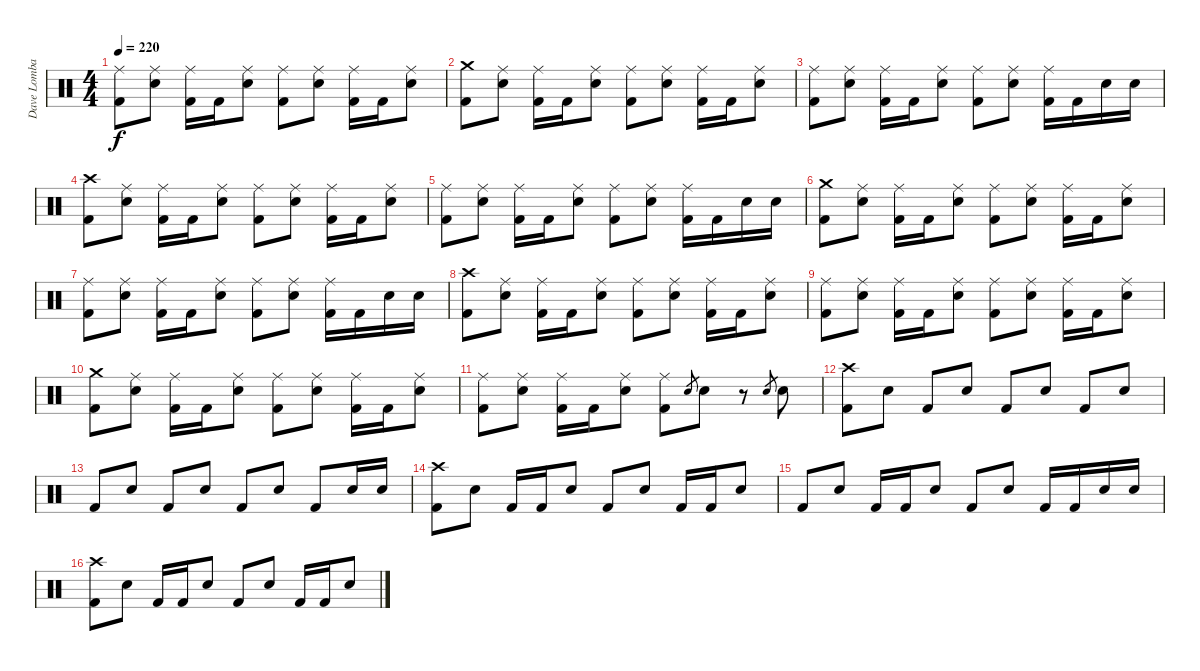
\track ("Dave Lombardo" "Dave Lomba") {instrument percussion}
\staff {score}
\articulation defaults
\ts (4 4)
\tempo 220
\clef neutral
\ks c
("Ride (middle)" "Kick (hit) 2").8{dy f} ("Ride (middle)" "Electric Snare (hit)").8 ("Ride (middle)" "Kick (hit) 2").16 "Kick (hit) 2".16 ("Ride (middle)" "Electric Snare (hit)").8 ("Ride (middle)" "Kick (hit) 2").8 ("Ride (middle)" "Electric Snare (hit)").8 ("Ride (middle)" "Kick (hit) 2").16 "Kick (hit) 2".16 ("Ride (middle)" "Electric Snare (hit)").8 |
("Crash medium (hit)" "Kick (hit) 2").8 ("Ride (middle)" "Electric Snare (hit)").8 ("Ride (middle)" "Kick (hit) 2").16 "Kick (hit) 2".16 ("Ride (middle)" "Electric Snare (hit)").8 ("Ride (middle)" "Kick (hit) 2").8 ("Ride (middle)" "Electric Snare (hit)").8 ("Ride (middle)" "Kick (hit) 2").16 "Kick (hit) 2".16 ("Ride (middle)" "Electric Snare (hit)").8 |
("Ride (middle)" "Kick (hit) 2").8 ("Ride (middle)" "Electric Snare (hit)").8 ("Ride (middle)" "Kick (hit) 2").16 "Kick (hit) 2".16 ("Ride (middle)" "Electric Snare (hit)").8 ("Ride (middle)" "Kick (hit) 2").8 ("Ride (middle)" "Electric Snare (hit)").8 ("Ride (middle)" "Kick (hit) 2").16 "Kick (hit) 2".16 "Electric Snare (hit)".16 "Electric Snare (hit)".16 |
("Crash high (hit)" "Kick (hit) 2").8 ("Ride (middle)" "Electric Snare (hit)").8 ("Ride (middle)" "Kick (hit) 2").16 "Kick (hit) 2".16 ("Ride (middle)" "Electric Snare (hit)").8 ("Ride (middle)" "Kick (hit) 2").8 ("Ride (middle)" "Electric Snare (hit)").8 ("Ride (middle)" "Kick (hit) 2").16 "Kick (hit) 2".16 ("Ride (middle)" "Electric Snare (hit)").8 |
("Ride (middle)" "Kick (hit) 2").8 ("Ride (middle)" "Electric Snare (hit)").8 ("Ride (middle)" "Kick (hit) 2").16 "Kick (hit) 2".16 ("Ride (middle)" "Electric Snare (hit)").8 ("Ride (middle)" "Kick (hit) 2").8 ("Ride (middle)" "Electric Snare (hit)").8 ("Ride (middle)" "Kick (hit) 2").16 "Kick (hit) 2".16 "Electric Snare (hit)".16 "Electric Snare (hit)".16 |
("Crash medium (hit)" "Kick (hit) 2").8 ("Ride (middle)" "Electric Snare (hit)").8 ("Ride (middle)" "Kick (hit) 2").16 "Kick (hit) 2".16 ("Ride (middle)" "Electric Snare (hit)").8 ("Ride (middle)" "Kick (hit) 2").8 ("Ride (middle)" "Electric Snare (hit)").8 ("Ride (middle)" "Kick (hit) 2").16 "Kick (hit) 2".16 ("Ride (middle)" "Electric Snare (hit)").8 |
("Ride (middle)" "Kick (hit) 2").8 ("Ride (middle)" "Electric Snare (hit)").8 ("Ride (middle)" "Kick (hit) 2").16 "Kick (hit) 2".16 ("Ride (middle)" "Electric Snare (hit)").8 ("Ride (middle)" "Kick (hit) 2").8 ("Ride (middle)" "Electric Snare (hit)").8 ("Ride (middle)" "Kick (hit) 2").16 "Kick (hit) 2".16 "Electric Snare (hit)".16 "Electric Snare (hit)".16 |
("Crash high (hit)" "Kick (hit) 2").8 ("Ride (middle)" "Electric Snare (hit)").8 ("Ride (middle)" "Kick (hit) 2").16 "Kick (hit) 2".16 ("Ride (middle)" "Electric Snare (hit)").8 ("Ride (middle)" "Kick (hit) 2").8 ("Ride (middle)" "Electric Snare (hit)").8 ("Ride (middle)" "Kick (hit) 2").16 "Kick (hit) 2".16 ("Ride (middle)" "Electric Snare (hit)").8 |
("Ride (middle)" "Kick (hit) 2").8 ("Ride (middle)" "Electric Snare (hit)").8 ("Ride (middle)" "Kick (hit) 2").16 "Kick (hit) 2".16 ("Ride (middle)" "Electric Snare (hit)").8 ("Ride (middle)" "Kick (hit) 2").8 ("Ride (middle)" "Electric Snare (hit)").8 ("Ride (middle)" "Kick (hit) 2").16 "Kick (hit) 2".16 ("Ride (middle)" "Electric Snare (hit)").8 |
("Crash medium (hit)" "Kick (hit) 2").8 ("Ride (middle)" "Electric Snare (hit)").8 ("Ride (middle)" "Kick (hit) 2").16 "Kick (hit) 2".16 ("Ride (middle)" "Electric Snare (hit)").8 ("Ride (middle)" "Kick (hit) 2").8 ("Ride (middle)" "Electric Snare (hit)").8 ("Ride (middle)" "Kick (hit) 2").16 "Kick (hit) 2".16 ("Ride (middle)" "Electric Snare (hit)").8 |
("Ride (middle)" "Kick (hit) 2").8 ("Ride (middle)" "Electric Snare (hit)").8 ("Ride (middle)" "Kick (hit) 2").16 "Kick (hit) 2".16 ("Ride (middle)" "Electric Snare (hit)").8 ("Ride (middle)" "Kick (hit) 2").8 "Electric Snare (hit)".8{gr} "Electric Snare (hit)".8 r.8 "Electric Snare (hit)".8{gr} "Electric Snare (hit)".8 |
("Crash high (hit)" "Kick (hit) 2").8 "Electric Snare (hit)".8 "Kick (hit) 2".8 "Electric Snare (hit)".8 "Kick (hit) 2".8 "Electric Snare (hit)".8 "Kick (hit) 2".8 "Electric Snare (hit)".8 |
"Kick (hit) 2".8 "Electric Snare (hit)".8 "Kick (hit) 2".8 "Electric Snare (hit)".8 "Kick (hit) 2".8 "Electric Snare (hit)".8 "Kick (hit) 2".8 "Electric Snare (hit)".16 "Electric Snare (hit)".16 |
("Crash high (hit)" "Kick (hit) 2").8 "Electric Snare (hit)".8 "Kick (hit) 2".16 "Kick (hit) 2".16 "Electric Snare (hit)".8 "Kick (hit) 2".8 "Electric Snare (hit)".8 "Kick (hit) 2".16 "Kick (hit) 2".16 "Electric Snare (hit)".8 |
"Kick (hit) 2".8 "Electric Snare (hit)".8 "Kick (hit) 2".16 "Kick (hit) 2".16 "Electric Snare (hit)".8 "Kick (hit) 2".8 "Electric Snare (hit)".8 "Kick (hit) 2".16 "Kick (hit) 2".16 "Electric Snare (hit)".16 "Electric Snare (hit)".16 |
("Crash high (hit)" "Kick (hit) 2").8 "Electric Snare (hit)".8 "Kick (hit) 2".16 "Kick (hit) 2".16 "Electric Snare (hit)".8 "Kick (hit) 2".8 "Electric Snare (hit)".8 "Kick (hit) 2".16 "Kick (hit) 2".16 "Electric Snare (hit)".8
